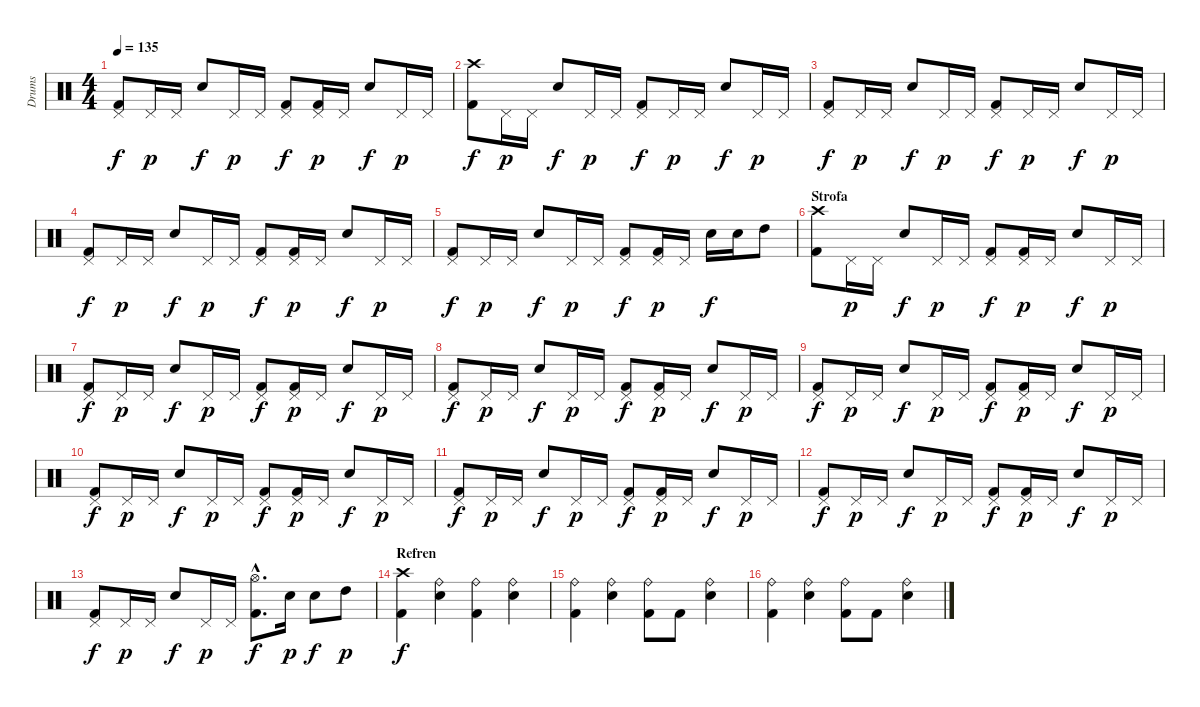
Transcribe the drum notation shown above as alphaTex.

\track ("Drums" "Drums") {instrument percussion}
\staff {score}
\articulation defaults
\ts (4 4)
\tempo 135
\clef neutral
\ks c
("Pedal Hi-Hat (hit)" "Kick (hit) 2").8{dy f} "Pedal Hi-Hat (hit)".16{dy p} "Pedal Hi-Hat (hit)".16 "Electric Snare (hit)".8{dy f} "Pedal Hi-Hat (hit)".16{dy p} "Pedal Hi-Hat (hit)".16 ("Pedal Hi-Hat (hit)" "Kick (hit) 2").8{dy f} ("Pedal Hi-Hat (hit)" "Kick (hit) 2").16{dy p} "Pedal Hi-Hat (hit)".16 "Electric Snare (hit)".8{dy f} "Pedal Hi-Hat (hit)".16{dy p} "Pedal Hi-Hat (hit)".16 |
("Crash high (hit)" "Kick (hit) 2").8{dy f} "Pedal Hi-Hat (hit)".16{dy p} "Pedal Hi-Hat (hit)".16 "Electric Snare (hit)".8{dy f} "Pedal Hi-Hat (hit)".16{dy p} "Pedal Hi-Hat (hit)".16 ("Pedal Hi-Hat (hit)" "Kick (hit) 2").8{dy f} "Pedal Hi-Hat (hit)".16{dy p} "Pedal Hi-Hat (hit)".16 "Electric Snare (hit)".8{dy f} "Pedal Hi-Hat (hit)".16{dy p} "Pedal Hi-Hat (hit)".16 |
("Pedal Hi-Hat (hit)" "Kick (hit) 2").8{dy f} "Pedal Hi-Hat (hit)".16{dy p} "Pedal Hi-Hat (hit)".16 "Electric Snare (hit)".8{dy f} "Pedal Hi-Hat (hit)".16{dy p} "Pedal Hi-Hat (hit)".16 ("Pedal Hi-Hat (hit)" "Kick (hit) 2").8{dy f} "Pedal Hi-Hat (hit)".16{dy p} "Pedal Hi-Hat (hit)".16 "Electric Snare (hit)".8{dy f} "Pedal Hi-Hat (hit)".16{dy p} "Pedal Hi-Hat (hit)".16 |
("Pedal Hi-Hat (hit)" "Kick (hit) 2").8{dy f} "Pedal Hi-Hat (hit)".16{dy p} "Pedal Hi-Hat (hit)".16 "Electric Snare (hit)".8{dy f} "Pedal Hi-Hat (hit)".16{dy p} "Pedal Hi-Hat (hit)".16 ("Pedal Hi-Hat (hit)" "Kick (hit) 2").8{dy f} ("Pedal Hi-Hat (hit)" "Kick (hit) 2").16{dy p} "Pedal Hi-Hat (hit)".16 "Electric Snare (hit)".8{dy f} "Pedal Hi-Hat (hit)".16{dy p} "Pedal Hi-Hat (hit)".16 |
("Pedal Hi-Hat (hit)" "Kick (hit) 2").8{dy f} "Pedal Hi-Hat (hit)".16{dy p} "Pedal Hi-Hat (hit)".16 "Electric Snare (hit)".8{dy f} "Pedal Hi-Hat (hit)".16{dy p} "Pedal Hi-Hat (hit)".16 ("Pedal Hi-Hat (hit)" "Kick (hit) 2").8{dy f} ("Pedal Hi-Hat (hit)" "Kick (hit) 2").16{dy p} "Pedal Hi-Hat (hit)".16 "Electric Snare (hit)".16{dy f} "Electric Snare (hit)".16 "High Tom (hit)".8 |
\section ("" "Strofa")
("Crash high (hit)" "Kick (hit) 2").8 "Pedal Hi-Hat (hit)".16{dy p} "Pedal Hi-Hat (hit)".16 "Electric Snare (hit)".8{dy f} "Pedal Hi-Hat (hit)".16{dy p} "Pedal Hi-Hat (hit)".16 ("Pedal Hi-Hat (hit)" "Kick (hit) 2").8{dy f} ("Pedal Hi-Hat (hit)" "Kick (hit) 2").16{dy p} "Pedal Hi-Hat (hit)".16 "Electric Snare (hit)".8{dy f} "Pedal Hi-Hat (hit)".16{dy p} "Pedal Hi-Hat (hit)".16 |
("Pedal Hi-Hat (hit)" "Kick (hit) 2").8{dy f} "Pedal Hi-Hat (hit)".16{dy p} "Pedal Hi-Hat (hit)".16 "Electric Snare (hit)".8{dy f} "Pedal Hi-Hat (hit)".16{dy p} "Pedal Hi-Hat (hit)".16 ("Pedal Hi-Hat (hit)" "Kick (hit) 2").8{dy f} ("Pedal Hi-Hat (hit)" "Kick (hit) 2").16{dy p} "Pedal Hi-Hat (hit)".16 "Electric Snare (hit)".8{dy f} "Pedal Hi-Hat (hit)".16{dy p} "Pedal Hi-Hat (hit)".16 |
("Pedal Hi-Hat (hit)" "Kick (hit) 2").8{dy f} "Pedal Hi-Hat (hit)".16{dy p} "Pedal Hi-Hat (hit)".16 "Electric Snare (hit)".8{dy f} "Pedal Hi-Hat (hit)".16{dy p} "Pedal Hi-Hat (hit)".16 ("Pedal Hi-Hat (hit)" "Kick (hit) 2").8{dy f} ("Pedal Hi-Hat (hit)" "Kick (hit) 2").16{dy p} "Pedal Hi-Hat (hit)".16 "Electric Snare (hit)".8{dy f} "Pedal Hi-Hat (hit)".16{dy p} "Pedal Hi-Hat (hit)".16 |
("Pedal Hi-Hat (hit)" "Kick (hit) 2").8{dy f} "Pedal Hi-Hat (hit)".16{dy p} "Pedal Hi-Hat (hit)".16 "Electric Snare (hit)".8{dy f} "Pedal Hi-Hat (hit)".16{dy p} "Pedal Hi-Hat (hit)".16 ("Pedal Hi-Hat (hit)" "Kick (hit) 2").8{dy f} ("Pedal Hi-Hat (hit)" "Kick (hit) 2").16{dy p} "Pedal Hi-Hat (hit)".16 "Electric Snare (hit)".8{dy f} "Pedal Hi-Hat (hit)".16{dy p} "Pedal Hi-Hat (hit)".16 |
("Pedal Hi-Hat (hit)" "Kick (hit) 2").8{dy f} "Pedal Hi-Hat (hit)".16{dy p} "Pedal Hi-Hat (hit)".16 "Electric Snare (hit)".8{dy f} "Pedal Hi-Hat (hit)".16{dy p} "Pedal Hi-Hat (hit)".16 ("Pedal Hi-Hat (hit)" "Kick (hit) 2").8{dy f} ("Pedal Hi-Hat (hit)" "Kick (hit) 2").16{dy p} "Pedal Hi-Hat (hit)".16 "Electric Snare (hit)".8{dy f} "Pedal Hi-Hat (hit)".16{dy p} "Pedal Hi-Hat (hit)".16 |
("Pedal Hi-Hat (hit)" "Kick (hit) 2").8{dy f} "Pedal Hi-Hat (hit)".16{dy p} "Pedal Hi-Hat (hit)".16 "Electric Snare (hit)".8{dy f} "Pedal Hi-Hat (hit)".16{dy p} "Pedal Hi-Hat (hit)".16 ("Pedal Hi-Hat (hit)" "Kick (hit) 2").8{dy f} ("Pedal Hi-Hat (hit)" "Kick (hit) 2").16{dy p} "Pedal Hi-Hat (hit)".16 "Electric Snare (hit)".8{dy f} "Pedal Hi-Hat (hit)".16{dy p} "Pedal Hi-Hat (hit)".16 |
("Pedal Hi-Hat (hit)" "Kick (hit) 2").8{dy f} "Pedal Hi-Hat (hit)".16{dy p} "Pedal Hi-Hat (hit)".16 "Electric Snare (hit)".8{dy f} "Pedal Hi-Hat (hit)".16{dy p} "Pedal Hi-Hat (hit)".16 ("Pedal Hi-Hat (hit)" "Kick (hit) 2").8{dy f} ("Pedal Hi-Hat (hit)" "Kick (hit) 2").16{dy p} "Pedal Hi-Hat (hit)".16 "Electric Snare (hit)".8{dy f} "Pedal Hi-Hat (hit)".16{dy p} "Pedal Hi-Hat (hit)".16 |
("Pedal Hi-Hat (hit)" "Kick (hit) 2").8{dy f} "Pedal Hi-Hat (hit)".16{dy p} "Pedal Hi-Hat (hit)".16 "Electric Snare (hit)".8{dy f} "Pedal Hi-Hat (hit)".16{dy p} "Pedal Hi-Hat (hit)".16 ("Hi-Hat (open)"{hac} "Kick (hit) 2"{hac}).8{d dy f} "Electric Snare (hit)".16{dy p} "Electric Snare (hit)".8{dy f} "High Tom (hit)".8{dy p} |
\section ("" "Refren")
("Crash high (hit)" "Kick (hit) 2").4{dy f} ("Ride (bell)" "Electric Snare (hit)").4 ("Ride (bell)" "Kick (hit) 2").4 ("Ride (bell)" "Electric Snare (hit)").4 |
("Ride (bell)" "Kick (hit) 2").4 ("Ride (bell)" "Electric Snare (hit)").4 ("Ride (bell)" "Kick (hit) 2").8 "Kick (hit) 2".8 ("Ride (bell)" "Electric Snare (hit)").4 |
("Ride (bell)" "Kick (hit) 2").4 ("Ride (bell)" "Electric Snare (hit)").4 ("Ride (bell)" "Kick (hit) 2").8 "Kick (hit) 2".8 ("Ride (bell)" "Electric Snare (hit)").4
